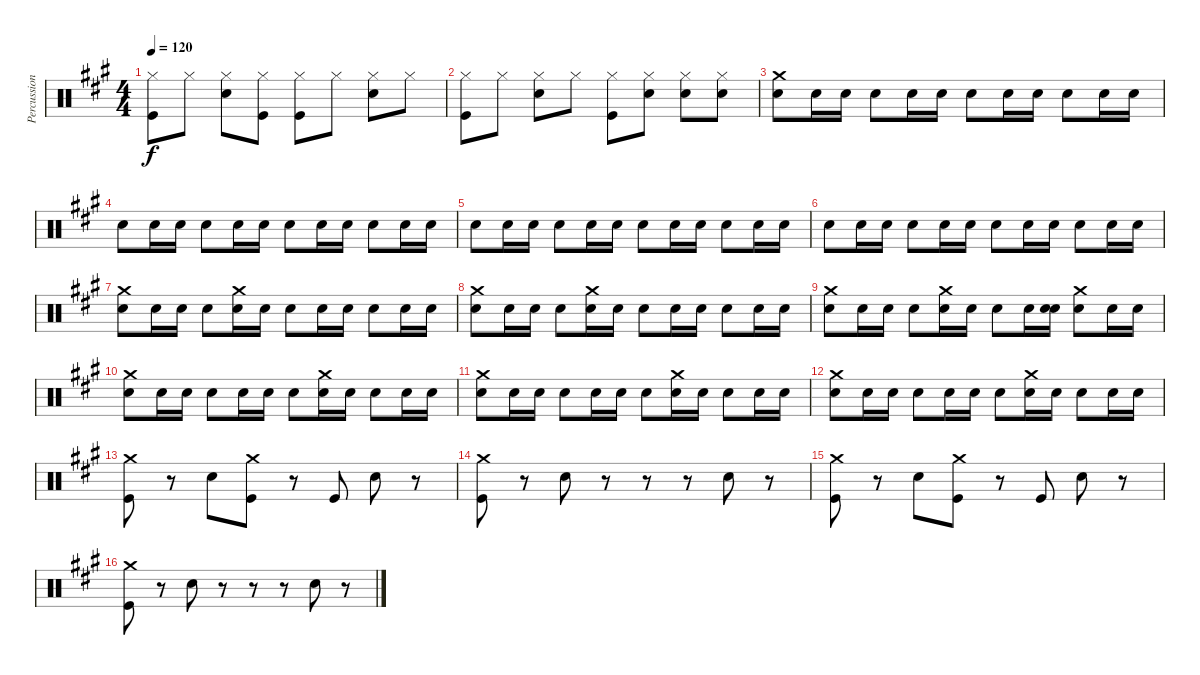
\track ("Percussion" "Percussion") {instrument percussion}
\staff {score}
\articulation defaults
\ts (4 4)
\tempo 120
\clef neutral
\ks a
("Hi-Hat (closed)" "Kick (hit)").8{dy f} "Hi-Hat (closed)".8 ("Hi-Hat (closed)" "Snare (hit) 2").8 ("Hi-Hat (closed)" "Kick (hit)").8 ("Hi-Hat (closed)" "Kick (hit)").8 "Hi-Hat (closed)".8 ("Hi-Hat (closed)" "Snare (hit) 2").8 "Hi-Hat (closed)".8 |
("Hi-Hat (closed)" "Kick (hit)").8 "Hi-Hat (closed)".8 ("Hi-Hat (closed)" "Snare (hit) 2").8 "Hi-Hat (closed)".8 ("Hi-Hat (closed)" "Kick (hit)").8 ("Hi-Hat (closed)" "Snare (hit) 2").8 ("Hi-Hat (closed)" "Snare (hit) 2").8 ("Hi-Hat (closed)" "Snare (hit) 2").8 |
("Crash medium (hit)" "Snare (hit) 2").8 "Snare (hit) 2".16 "Snare (hit) 2".16 "Snare (hit) 2".8 "Snare (hit) 2".16 "Snare (hit) 2".16 "Snare (hit) 2".8 "Snare (hit) 2".16 "Snare (hit) 2".16 "Snare (hit) 2".8 "Snare (hit) 2".16 "Snare (hit) 2".16 |
"Snare (hit) 2".8 "Snare (hit) 2".16 "Snare (hit) 2".16 "Snare (hit) 2".8 "Snare (hit) 2".16 "Snare (hit) 2".16 "Snare (hit) 2".8 "Snare (hit) 2".16 "Snare (hit) 2".16 "Snare (hit) 2".8 "Snare (hit) 2".16 "Snare (hit) 2".16 |
"Snare (hit) 2".8 "Snare (hit) 2".16 "Snare (hit) 2".16 "Snare (hit) 2".8 "Snare (hit) 2".16 "Snare (hit) 2".16 "Snare (hit) 2".8 "Snare (hit) 2".16 "Snare (hit) 2".16 "Snare (hit) 2".8 "Snare (hit) 2".16 "Snare (hit) 2".16 |
"Snare (hit) 2".8 "Snare (hit) 2".16 "Snare (hit) 2".16 "Snare (hit) 2".8 "Snare (hit) 2".16 "Snare (hit) 2".16 "Snare (hit) 2".8 "Snare (hit) 2".16 "Snare (hit) 2".16 "Snare (hit) 2".8 "Snare (hit) 2".16 "Snare (hit) 2".16 |
("Crash medium (hit)" "Snare (hit) 2").8 "Snare (hit) 2".16 "Snare (hit) 2".16 "Snare (hit) 2".8 ("Crash medium (hit)" "Snare (hit) 2").16 "Snare (hit) 2".16 "Snare (hit) 2".8 "Snare (hit) 2".16 "Snare (hit) 2".16 "Snare (hit) 2".8 "Snare (hit) 2".16 "Snare (hit) 2".16 |
("Crash medium (hit)" "Snare (hit) 2").8 "Snare (hit) 2".16 "Snare (hit) 2".16 "Snare (hit) 2".8 ("Crash medium (hit)" "Snare (hit) 2").16 "Snare (hit) 2".16 "Snare (hit) 2".8 "Snare (hit) 2".16 "Snare (hit) 2".16 "Snare (hit) 2".8 "Snare (hit) 2".16 "Snare (hit) 2".16 |
("Crash medium (hit)" "Snare (hit) 2").8 "Snare (hit) 2".16 "Snare (hit) 2".16 "Snare (hit) 2".8 ("Crash medium (hit)" "Snare (hit) 2").16 "Snare (hit) 2".16 "Snare (hit) 2".8 "Snare (hit) 2".16 ("Snare (hit)" "Snare (hit) 2").16 ("Crash medium (hit)" "Snare (hit) 2").8 "Snare (hit) 2".16 "Snare (hit) 2".16 |
("Crash medium (hit)" "Snare (hit) 2").8 "Snare (hit) 2".16 "Snare (hit) 2".16 "Snare (hit) 2".8 "Snare (hit) 2".16 "Snare (hit) 2".16 "Snare (hit) 2".8 ("Crash medium (hit)" "Snare (hit) 2").16 "Snare (hit) 2".16 "Snare (hit) 2".8 "Snare (hit) 2".16 "Snare (hit) 2".16 |
("Crash medium (hit)" "Snare (hit) 2").8 "Snare (hit) 2".16 "Snare (hit) 2".16 "Snare (hit) 2".8 "Snare (hit) 2".16 "Snare (hit) 2".16 "Snare (hit) 2".8 ("Crash medium (hit)" "Snare (hit) 2").16 "Snare (hit) 2".16 "Snare (hit) 2".8 "Snare (hit) 2".16 "Snare (hit) 2".16 |
("Crash medium (hit)" "Snare (hit) 2").8 "Snare (hit) 2".16 "Snare (hit) 2".16 "Snare (hit) 2".8 "Snare (hit) 2".16 "Snare (hit) 2".16 "Snare (hit) 2".8 ("Crash medium (hit)" "Snare (hit) 2").16 "Snare (hit) 2".16 "Snare (hit) 2".8 "Snare (hit) 2".16 "Snare (hit) 2".16 |
("Crash medium (hit)" "Kick (hit)").8 r.8 "Snare (hit) 2".8 ("Crash medium (hit)" "Kick (hit)").8 r.8 "Kick (hit)".8 "Snare (hit) 2".8 r.8 |
("Crash medium (hit)" "Kick (hit)").8 r.8 "Snare (hit) 2".8 r.8 r.8 r.8 "Snare (hit) 2".8 r.8 |
("Crash medium (hit)" "Kick (hit)").8 r.8 "Snare (hit) 2".8 ("Crash medium (hit)" "Kick (hit)").8 r.8 "Kick (hit)".8 "Snare (hit) 2".8 r.8 |
("Crash medium (hit)" "Kick (hit)").8 r.8 "Snare (hit) 2".8 r.8 r.8 r.8 "Snare (hit) 2".8 r.8
